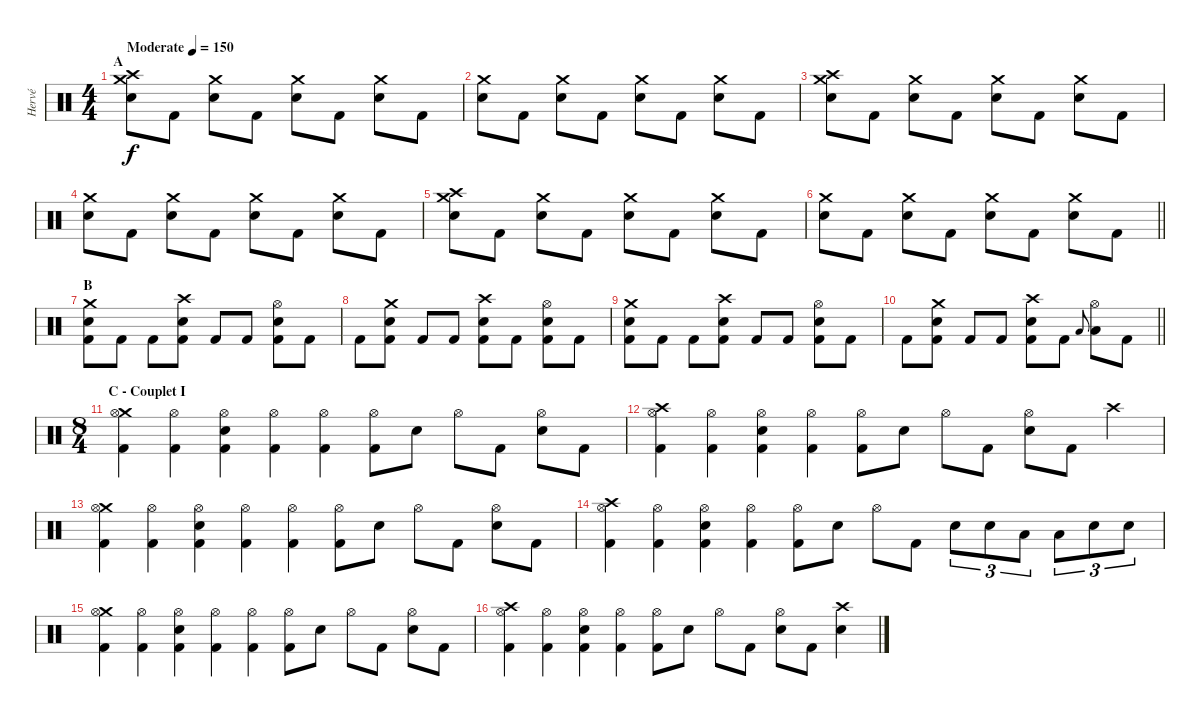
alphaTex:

\track ("Hervé" "Hervé") {instrument percussion}
\staff {score}
\articulation defaults
\ts (4 4)
\section ("" "A")
\tempo (150 "Moderate")
\clef neutral
\ks c
("Crash high (hit)" "Crash medium (hit)" "Snare (hit) 2").8{dy f} "Kick (hit) 2".8 ("Crash medium (hit)" "Snare (hit) 2").8 "Kick (hit) 2".8 ("Crash medium (hit)" "Snare (hit) 2").8 "Kick (hit) 2".8 ("Crash medium (hit)" "Snare (hit) 2").8 "Kick (hit) 2".8 |
("Crash medium (hit)" "Snare (hit) 2").8 "Kick (hit) 2".8 ("Crash medium (hit)" "Snare (hit) 2").8 "Kick (hit) 2".8 ("Crash medium (hit)" "Snare (hit) 2").8 "Kick (hit) 2".8 ("Crash medium (hit)" "Snare (hit) 2").8 "Kick (hit) 2".8 |
("Crash high (hit)" "Crash medium (hit)" "Snare (hit) 2").8 "Kick (hit) 2".8 ("Crash medium (hit)" "Snare (hit) 2").8 "Kick (hit) 2".8 ("Crash medium (hit)" "Snare (hit) 2").8 "Kick (hit) 2".8 ("Crash medium (hit)" "Snare (hit) 2").8 "Kick (hit) 2".8 |
("Crash medium (hit)" "Snare (hit) 2").8 "Kick (hit) 2".8 ("Crash medium (hit)" "Snare (hit) 2").8 "Kick (hit) 2".8 ("Crash medium (hit)" "Snare (hit) 2").8 "Kick (hit) 2".8 ("Crash medium (hit)" "Snare (hit) 2").8 "Kick (hit) 2".8 |
("Crash high (hit)" "Crash medium (hit)" "Snare (hit) 2").8 "Kick (hit) 2".8 ("Crash medium (hit)" "Snare (hit) 2").8 "Kick (hit) 2".8 ("Crash medium (hit)" "Snare (hit) 2").8 "Kick (hit) 2".8 ("Crash medium (hit)" "Snare (hit) 2").8 "Kick (hit) 2".8 |
\barLineRight lightlight
("Crash medium (hit)" "Snare (hit) 2").8 "Kick (hit) 2".8 ("Crash medium (hit)" "Snare (hit) 2").8 "Kick (hit) 2".8 ("Crash medium (hit)" "Snare (hit) 2").8 "Kick (hit) 2".8 ("Crash medium (hit)" "Snare (hit) 2").8 "Kick (hit) 2".8 |
\section ("" "B")
("Crash medium (hit)" "Snare (hit) 2" "Kick (hit) 2").8 "Kick (hit) 2".8 "Kick (hit) 2".8 ("Crash high (hit)" "Snare (hit) 2" "Kick (hit) 2").8 "Kick (hit) 2".8 "Kick (hit) 2".8 ("Hi-Hat (open)" "Snare (hit) 2" "Kick (hit) 2").8 "Kick (hit) 2".8 |
"Kick (hit) 2".8 ("Crash medium (hit)" "Snare (hit) 2" "Kick (hit) 2").8 "Kick (hit) 2".8 "Kick (hit) 2".8 ("Crash high (hit)" "Snare (hit) 2" "Kick (hit) 2").8 "Kick (hit) 2".8 ("Hi-Hat (open)" "Snare (hit) 2" "Kick (hit) 2").8 "Kick (hit) 2".8 |
("Crash medium (hit)" "Snare (hit) 2" "Kick (hit) 2").8 "Kick (hit) 2".8 "Kick (hit) 2".8 ("Crash high (hit)" "Snare (hit) 2" "Kick (hit) 2").8 "Kick (hit) 2".8 "Kick (hit) 2".8 ("Hi-Hat (open)" "Snare (hit) 2" "Kick (hit) 2").8 "Kick (hit) 2".8 |
\barLineRight lightlight "Kick (hit) 2".8
("Crash medium (hit)" "Snare (hit) 2" "Kick (hit) 2").8 "Kick (hit) 2".8 "Kick (hit) 2".8 ("Crash high (hit)" "Snare (hit) 2" "Kick (hit) 2").8 "Kick (hit) 2".8 "Low Tom (hit)".8{gr onbeat} ("Hi-Hat (open)" "Low Tom (hit)").8 "Kick (hit) 2".8 |
\ts (8 4)
\section ("" "C - Couplet I")
("Crash medium (hit)" "Hi-Hat (open)" "Kick (hit) 2").4 ("Hi-Hat (open)" "Kick (hit) 2").4 ("Hi-Hat (open)" "Snare (hit) 2" "Kick (hit) 2").4 ("Hi-Hat (open)" "Kick (hit) 2").4 ("Hi-Hat (open)" "Kick (hit) 2").4 ("Hi-Hat (open)" "Kick (hit) 2").8 "Snare (hit) 2".8 "Hi-Hat (open)".8 "Kick (hit) 2".8 ("Hi-Hat (open)" "Snare (hit) 2").8 "Kick (hit) 2".8 |
("Crash high (hit)" "Hi-Hat (open)" "Kick (hit) 2").4 ("Hi-Hat (open)" "Kick (hit) 2").4 ("Hi-Hat (open)" "Snare (hit) 2" "Kick (hit) 2").4 ("Hi-Hat (open)" "Kick (hit) 2").4 ("Hi-Hat (open)" "Kick (hit) 2").8 "Snare (hit) 2".8 "Hi-Hat (open)".8 "Kick (hit) 2".8 ("Hi-Hat (open)" "Snare (hit) 2").8 "Kick (hit) 2".8 "Crash high (hit)".4 |
("Crash medium (hit)" "Hi-Hat (open)" "Kick (hit) 2").4 ("Hi-Hat (open)" "Kick (hit) 2").4 ("Hi-Hat (open)" "Snare (hit) 2" "Kick (hit) 2").4 ("Hi-Hat (open)" "Kick (hit) 2").4 ("Hi-Hat (open)" "Kick (hit) 2").4 ("Hi-Hat (open)" "Kick (hit) 2").8 "Snare (hit) 2".8 "Hi-Hat (open)".8 "Kick (hit) 2".8 ("Hi-Hat (open)" "Snare (hit) 2").8 "Kick (hit) 2".8 |
("Crash high (hit)" "Hi-Hat (open)" "Kick (hit) 2").4 ("Hi-Hat (open)" "Kick (hit) 2").4 ("Hi-Hat (open)" "Snare (hit) 2" "Kick (hit) 2").4 ("Hi-Hat (open)" "Kick (hit) 2").4 ("Hi-Hat (open)" "Kick (hit) 2").8 "Snare (hit) 2".8 "Hi-Hat (open)".8 "Kick (hit) 2".8 "Snare (hit) 2".8{tu (3 2)} "Snare (hit) 2".8{tu (3 2)} "Low Tom (hit)".8{tu (3 2)} "Low Tom (hit)".8{tu (3 2)} "Snare (hit) 2".8{tu (3 2)} "Snare (hit) 2".8{tu (3 2)} |
("Crash medium (hit)" "Hi-Hat (open)" "Kick (hit) 2").4 ("Hi-Hat (open)" "Kick (hit) 2").4 ("Hi-Hat (open)" "Snare (hit) 2" "Kick (hit) 2").4 ("Hi-Hat (open)" "Kick (hit) 2").4 ("Hi-Hat (open)" "Kick (hit) 2").4 ("Hi-Hat (open)" "Kick (hit) 2").8 "Snare (hit) 2".8 "Hi-Hat (open)".8 "Kick (hit) 2".8 ("Hi-Hat (open)" "Snare (hit) 2").8 "Kick (hit) 2".8 |
("Crash high (hit)" "Hi-Hat (open)" "Kick (hit) 2").4 ("Hi-Hat (open)" "Kick (hit) 2").4 ("Hi-Hat (open)" "Snare (hit) 2" "Kick (hit) 2").4 ("Hi-Hat (open)" "Kick (hit) 2").4 ("Hi-Hat (open)" "Kick (hit) 2").8 "Snare (hit) 2".8 "Hi-Hat (open)".8 "Kick (hit) 2".8 ("Hi-Hat (open)" "Snare (hit) 2").8 "Kick (hit) 2".8 ("Crash high (hit)" "Snare (hit) 2").4
